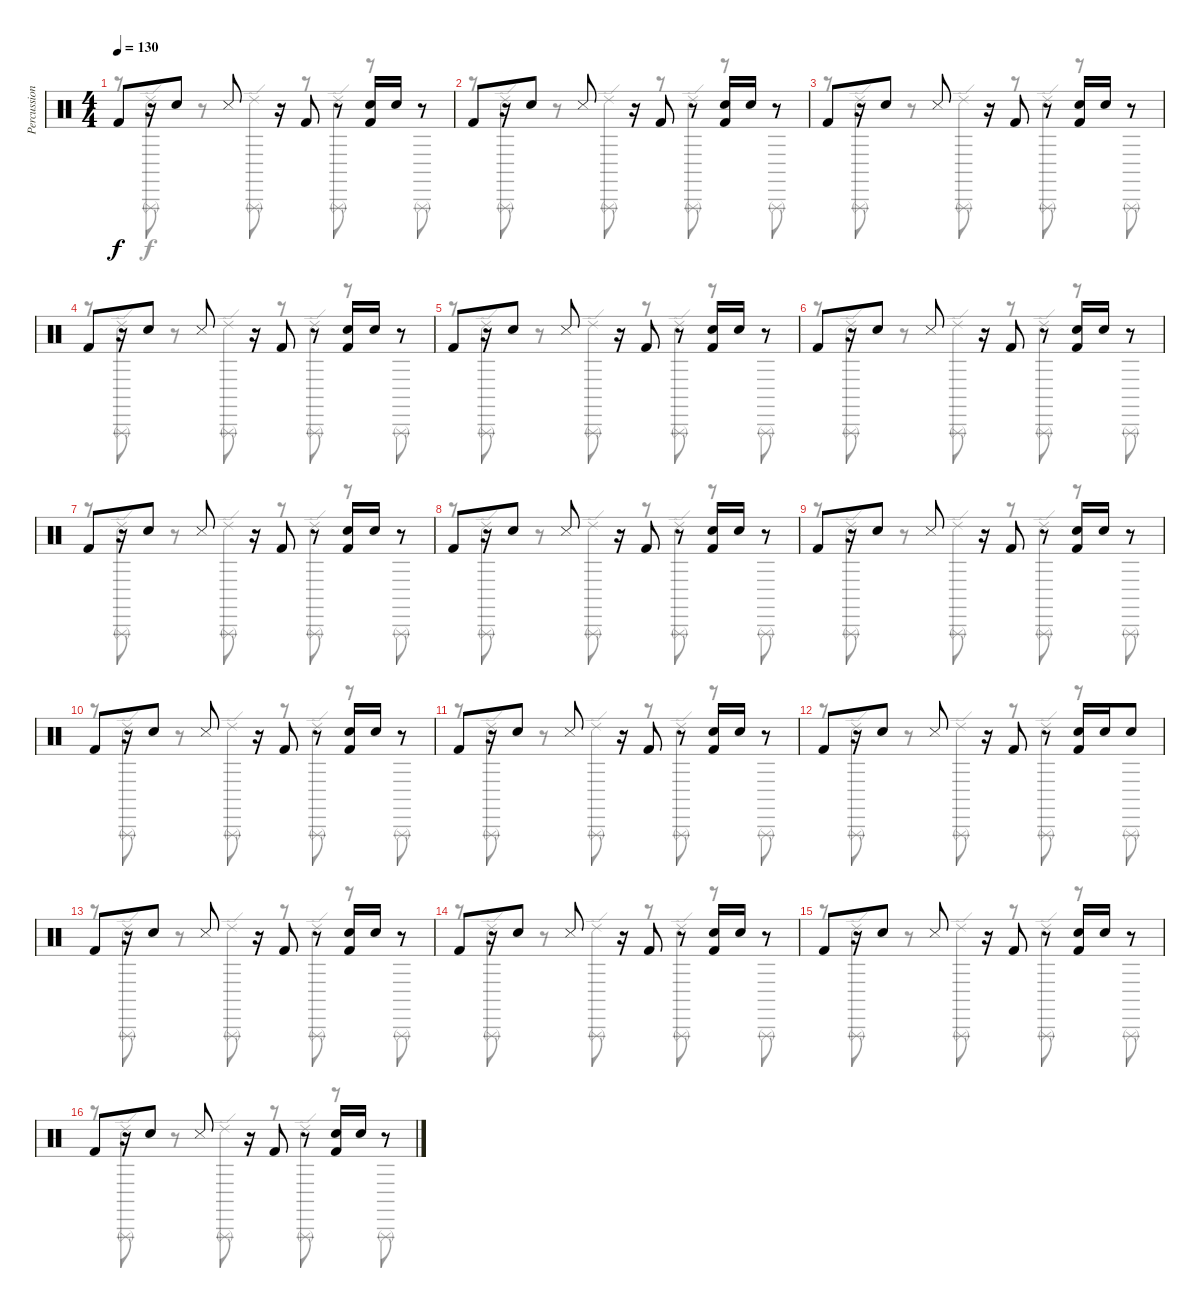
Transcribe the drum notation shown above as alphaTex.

\track ("Percussion" "Percussion") {instrument percussion}
\staff {score}
\articulation defaults
\voice
\ts (4 4)
\tempo 130
\clef neutral
\ks c "Kick (hit) 2".8{dy f}
r.16 "Electric Snare (hit)".8 "Snare (side stick) 3".8 r.16 "Kick (hit) 2".8 r.8 ("Electric Snare (hit)" "Kick (hit) 2").16 "Electric Snare (hit)".16 r.8 |
"Kick (hit) 2".8 r.16 "Electric Snare (hit)".8 "Snare (side stick) 3".8 r.16 "Kick (hit) 2".8 r.8 ("Electric Snare (hit)" "Kick (hit) 2").16 "Electric Snare (hit)".16 r.8 |
"Kick (hit) 2".8 r.16 "Electric Snare (hit)".8 "Snare (side stick) 3".8 r.16 "Kick (hit) 2".8 r.8 ("Electric Snare (hit)" "Kick (hit) 2").16 "Electric Snare (hit)".16 r.8 |
"Kick (hit) 2".8 r.16 "Electric Snare (hit)".8 "Snare (side stick) 3".8 r.16 "Kick (hit) 2".8 r.8 ("Electric Snare (hit)" "Kick (hit) 2").16 "Electric Snare (hit)".16 r.8 |
"Kick (hit) 2".8 r.16 "Electric Snare (hit)".8 "Snare (side stick) 3".8 r.16 "Kick (hit) 2".8 r.8 ("Electric Snare (hit)" "Kick (hit) 2").16 "Electric Snare (hit)".16 r.8 |
"Kick (hit) 2".8 r.16 "Electric Snare (hit)".8 "Snare (side stick) 3".8 r.16 "Kick (hit) 2".8 r.8 ("Electric Snare (hit)" "Kick (hit) 2").16 "Electric Snare (hit)".16 r.8 |
"Kick (hit) 2".8 r.16 "Electric Snare (hit)".8 "Snare (side stick) 3".8 r.16 "Kick (hit) 2".8 r.8 ("Electric Snare (hit)" "Kick (hit) 2").16 "Electric Snare (hit)".16 r.8 |
"Kick (hit) 2".8 r.16 "Electric Snare (hit)".8 "Snare (side stick) 3".8 r.16 "Kick (hit) 2".8 r.8 ("Electric Snare (hit)" "Kick (hit) 2").16 "Electric Snare (hit)".16 r.8 |
"Kick (hit) 2".8 r.16 "Electric Snare (hit)".8 "Snare (side stick) 3".8 r.16 "Kick (hit) 2".8 r.8 ("Electric Snare (hit)" "Kick (hit) 2").16 "Electric Snare (hit)".16 r.8 |
"Kick (hit) 2".8 r.16 "Electric Snare (hit)".8 "Snare (side stick) 3".8 r.16 "Kick (hit) 2".8 r.8 ("Electric Snare (hit)" "Kick (hit) 2").16 "Electric Snare (hit)".16 r.8 |
"Kick (hit) 2".8 r.16 "Electric Snare (hit)".8 "Snare (side stick) 3".8 r.16 "Kick (hit) 2".8 r.8 ("Electric Snare (hit)" "Kick (hit) 2").16 "Electric Snare (hit)".16 r.8 |
"Kick (hit) 2".8 r.16 "Electric Snare (hit)".8 "Snare (side stick) 3".8 r.16 "Kick (hit) 2".8 r.8 ("Electric Snare (hit)" "Kick (hit) 2").16 "Electric Snare (hit)".16 "Electric Snare (hit)".8 |
"Kick (hit) 2".8 r.16 "Electric Snare (hit)".8 "Snare (side stick) 3".8 r.16 "Kick (hit) 2".8 r.8 ("Electric Snare (hit)" "Kick (hit) 2").16 "Electric Snare (hit)".16 r.8 |
"Kick (hit) 2".8 r.16 "Electric Snare (hit)".8 "Snare (side stick) 3".8 r.16 "Kick (hit) 2".8 r.8 ("Electric Snare (hit)" "Kick (hit) 2").16 "Electric Snare (hit)".16 r.8 |
"Kick (hit) 2".8 r.16 "Electric Snare (hit)".8 "Snare (side stick) 3".8 r.16 "Kick (hit) 2".8 r.8 ("Electric Snare (hit)" "Kick (hit) 2").16 "Electric Snare (hit)".16 r.8 |
"Kick (hit) 2".8 r.16 "Electric Snare (hit)".8 "Snare (side stick) 3".8 r.16 "Kick (hit) 2".8 r.8 ("Electric Snare (hit)" "Kick (hit) 2").16 "Electric Snare (hit)".16 r.8
\voice
\clef neutral
\ottava regular
\simile none
\ks c
r.8{dy f} ("Triangle (rnute)" "Ride (edge) 2").8 r.8 ("Triangle (rnute)" "Ride (edge) 2").8 r.8 ("Triangle (rnute)" "Ride (edge) 2").8 r.8 "Triangle (rnute)".8 |
r.8 ("Triangle (rnute)" "Ride (edge) 2").8 r.8 ("Triangle (rnute)" "Ride (edge) 2").8 r.8 ("Triangle (rnute)" "Ride (edge) 2").8 r.8 "Triangle (rnute)".8 |
r.8 ("Triangle (rnute)" "Ride (edge) 2").8 r.8 ("Triangle (rnute)" "Ride (edge) 2").8 r.8 ("Triangle (rnute)" "Ride (edge) 2").8 r.8 "Triangle (rnute)".8 |
r.8 ("Triangle (rnute)" "Ride (edge) 2").8 r.8 ("Triangle (rnute)" "Ride (edge) 2").8 r.8 ("Triangle (rnute)" "Ride (edge) 2").8 r.8 "Triangle (rnute)".8 |
r.8 ("Triangle (rnute)" "Ride (edge) 2").8 r.8 ("Triangle (rnute)" "Ride (edge) 2").8 r.8 ("Triangle (rnute)" "Ride (edge) 2").8 r.8 "Triangle (rnute)".8 |
r.8 ("Triangle (rnute)" "Ride (edge) 2").8 r.8 ("Triangle (rnute)" "Ride (edge) 2").8 r.8 ("Triangle (rnute)" "Ride (edge) 2").8 r.8 "Triangle (rnute)".8 |
r.8 ("Triangle (rnute)" "Ride (edge) 2").8 r.8 ("Triangle (rnute)" "Ride (edge) 2").8 r.8 ("Triangle (rnute)" "Ride (edge) 2").8 r.8 "Triangle (rnute)".8 |
r.8 ("Triangle (rnute)" "Ride (edge) 2").8 r.8 ("Triangle (rnute)" "Ride (edge) 2").8 r.8 ("Triangle (rnute)" "Ride (edge) 2").8 r.8 "Triangle (rnute)".8 |
r.8 ("Triangle (rnute)" "Ride (edge) 2").8 r.8 ("Triangle (rnute)" "Ride (edge) 2").8 r.8 ("Triangle (rnute)" "Ride (edge) 2").8 r.8 "Triangle (rnute)".8 |
r.8 ("Triangle (rnute)" "Ride (edge) 2").8 r.8 ("Triangle (rnute)" "Ride (edge) 2").8 r.8 ("Triangle (rnute)" "Ride (edge) 2").8 r.8 "Triangle (rnute)".8 |
r.8 ("Triangle (rnute)" "Ride (edge) 2").8 r.8 ("Triangle (rnute)" "Ride (edge) 2").8 r.8 ("Triangle (rnute)" "Ride (edge) 2").8 r.8 "Triangle (rnute)".8 |
r.8 ("Triangle (rnute)" "Ride (edge) 2").8 r.8 ("Triangle (rnute)" "Ride (edge) 2").8 r.8 ("Triangle (rnute)" "Ride (edge) 2").8 r.8 "Triangle (rnute)".8 |
r.8 ("Triangle (rnute)" "Ride (edge) 2").8 r.8 ("Triangle (rnute)" "Ride (edge) 2").8 r.8 ("Triangle (rnute)" "Ride (edge) 2").8 r.8 "Triangle (rnute)".8 |
r.8 ("Triangle (rnute)" "Ride (edge) 2").8 r.8 ("Triangle (rnute)" "Ride (edge) 2").8 r.8 ("Triangle (rnute)" "Ride (edge) 2").8 r.8 "Triangle (rnute)".8 |
r.8 ("Triangle (rnute)" "Ride (edge) 2").8 r.8 ("Triangle (rnute)" "Ride (edge) 2").8 r.8 ("Triangle (rnute)" "Ride (edge) 2").8 r.8 "Triangle (rnute)".8 |
r.8 ("Triangle (rnute)" "Ride (edge) 2").8 r.8 ("Triangle (rnute)" "Ride (edge) 2").8 r.8 ("Triangle (rnute)" "Ride (edge) 2").8 r.8 "Triangle (rnute)".8
